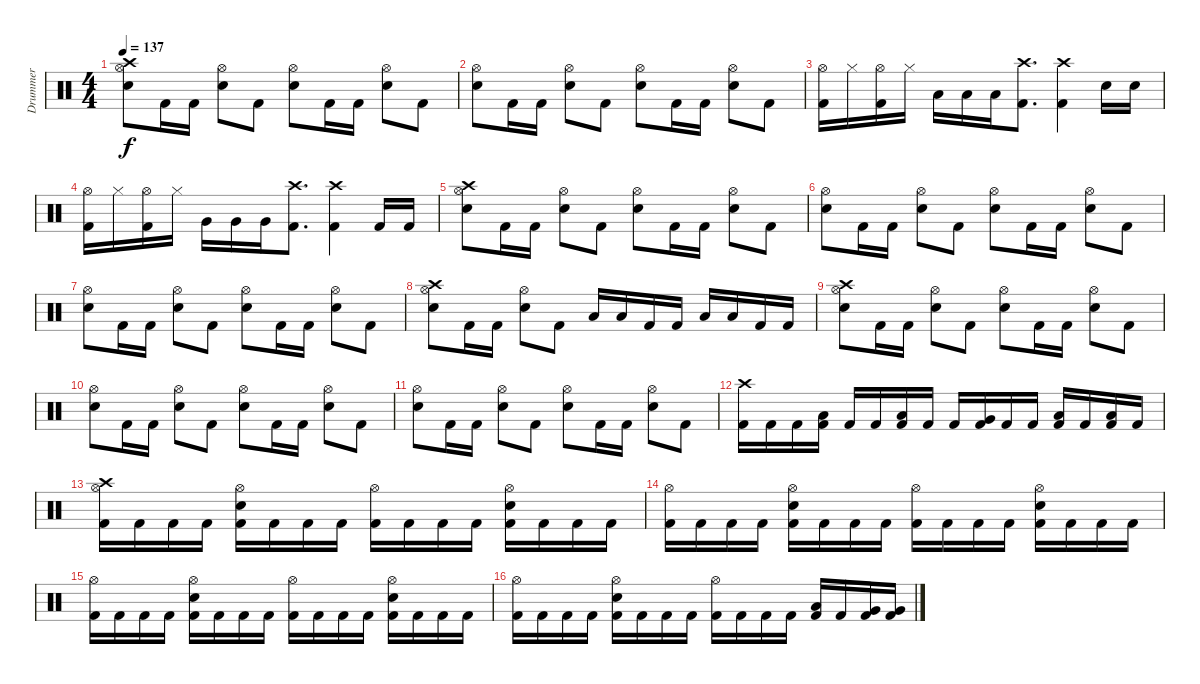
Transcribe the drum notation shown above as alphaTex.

\track ("Drummer" "Drummer") {instrument percussion}
\staff {score}
\articulation defaults
\ts (4 4)
\tempo 137
\clef neutral
\ks c
("Crash high (hit)" "Hi-Hat (open)" "Electric Snare (hit)").8{dy f} "Kick (hit) 2".16 "Kick (hit) 2".16 ("Hi-Hat (open)" "Electric Snare (hit)").8 "Kick (hit) 2".8 ("Hi-Hat (open)" "Electric Snare (hit)").8 "Kick (hit) 2".16 "Kick (hit) 2".16 ("Hi-Hat (open)" "Electric Snare (hit)").8 "Kick (hit) 2".8 |
("Hi-Hat (open)" "Electric Snare (hit)").8 "Kick (hit) 2".16 "Kick (hit) 2".16 ("Hi-Hat (open)" "Electric Snare (hit)").8 "Kick (hit) 2".8 ("Hi-Hat (open)" "Electric Snare (hit)").8 "Kick (hit) 2".16 "Kick (hit) 2".16 ("Hi-Hat (open)" "Electric Snare (hit)").8 "Kick (hit) 2".8 |
("Hi-Hat (open)" "Kick (hit) 2").16 "Hi-Hat (closed)".16 ("Hi-Hat (open)" "Kick (hit) 2").16 "Hi-Hat (closed)".16 "Low Tom (hit)".16 "Low Tom (hit)".16 "Low Tom (hit)".16 ("Crash high (hit)" "Kick (hit) 2").8{d} ("Crash high (hit)" "Kick (hit) 2").4 "Electric Snare (hit)".16 "Electric Snare (hit)".16 |
("Hi-Hat (open)" "Kick (hit) 2").16 "Hi-Hat (closed)".16 ("Hi-Hat (open)" "Kick (hit) 2").16 "Hi-Hat (closed)".16 "Very Low Tom (hit)".16 "Very Low Tom (hit)".16 "Very Low Tom (hit)".16 ("Crash high (hit)" "Kick (hit) 2").8{d} ("Crash high (hit)" "Kick (hit) 2").4 "Kick (hit) 2".16 "Kick (hit) 2".16 |
("Crash high (hit)" "Hi-Hat (open)" "Electric Snare (hit)").8 "Kick (hit) 2".16 "Kick (hit) 2".16 ("Hi-Hat (open)" "Electric Snare (hit)").8 "Kick (hit) 2".8 ("Hi-Hat (open)" "Electric Snare (hit)").8 "Kick (hit) 2".16 "Kick (hit) 2".16 ("Hi-Hat (open)" "Electric Snare (hit)").8 "Kick (hit) 2".8 |
("Hi-Hat (open)" "Electric Snare (hit)").8 "Kick (hit) 2".16 "Kick (hit) 2".16 ("Hi-Hat (open)" "Electric Snare (hit)").8 "Kick (hit) 2".8 ("Hi-Hat (open)" "Electric Snare (hit)").8 "Kick (hit) 2".16 "Kick (hit) 2".16 ("Hi-Hat (open)" "Electric Snare (hit)").8 "Kick (hit) 2".8 |
("Hi-Hat (open)" "Electric Snare (hit)").8 "Kick (hit) 2".16 "Kick (hit) 2".16 ("Hi-Hat (open)" "Electric Snare (hit)").8 "Kick (hit) 2".8 ("Hi-Hat (open)" "Electric Snare (hit)").8 "Kick (hit) 2".16 "Kick (hit) 2".16 ("Hi-Hat (open)" "Electric Snare (hit)").8 "Kick (hit) 2".8 |
("Crash high (hit)" "Hi-Hat (open)" "Electric Snare (hit)").8 "Kick (hit) 2".16 "Kick (hit) 2".16 ("Hi-Hat (open)" "Electric Snare (hit)").8 "Kick (hit) 2".8 "Low Tom (hit)".16 "Low Tom (hit)".16 "Kick (hit) 2".16 "Kick (hit) 2".16 "Low Floor Tom (hit)".16 "Low Floor Tom (hit)".16 "Kick (hit) 2".16 "Kick (hit) 2".16 |
("Crash high (hit)" "Hi-Hat (open)" "Electric Snare (hit)").8 "Kick (hit) 2".16 "Kick (hit) 2".16 ("Hi-Hat (open)" "Electric Snare (hit)").8 "Kick (hit) 2".8 ("Hi-Hat (open)" "Electric Snare (hit)").8 "Kick (hit) 2".16 "Kick (hit) 2".16 ("Hi-Hat (open)" "Electric Snare (hit)").8 "Kick (hit) 2".8 |
("Hi-Hat (open)" "Electric Snare (hit)").8 "Kick (hit) 2".16 "Kick (hit) 2".16 ("Hi-Hat (open)" "Electric Snare (hit)").8 "Kick (hit) 2".8 ("Hi-Hat (open)" "Electric Snare (hit)").8 "Kick (hit) 2".16 "Kick (hit) 2".16 ("Hi-Hat (open)" "Electric Snare (hit)").8 "Kick (hit) 2".8 |
("Hi-Hat (open)" "Electric Snare (hit)").8 "Kick (hit) 2".16 "Kick (hit) 2".16 ("Hi-Hat (open)" "Electric Snare (hit)").8 "Kick (hit) 2".8 ("Hi-Hat (open)" "Electric Snare (hit)").8 "Kick (hit) 2".16 "Kick (hit) 2".16 ("Hi-Hat (open)" "Electric Snare (hit)").8 "Kick (hit) 2".8 |
("Kick (hit) 2" "Crash high (hit)").16 "Kick (hit) 2".16 "Kick (hit) 2".16 ("Kick (hit) 2" "Low Tom (hit)").16 "Kick (hit) 2".16 "Kick (hit) 2".16 ("Kick (hit) 2" "Low Tom (hit)").16 "Kick (hit) 2".16 "Kick (hit) 2".16 ("Kick (hit) 2" "Very Low Tom (hit)").16 "Kick (hit) 2".16 "Kick (hit) 2".16 ("Kick (hit) 2" "Low Floor Tom (hit)").16 "Kick (hit) 2".16 ("Kick (hit) 2" "Low Floor Tom (hit)").16 "Kick (hit) 2".16 |
("Crash high (hit)" "Hi-Hat (open)" "Kick (hit) 2").16 "Kick (hit) 2".16 "Kick (hit) 2".16 "Kick (hit) 2".16 ("Electric Snare (hit)" "Hi-Hat (open)" "Kick (hit) 2").16 "Kick (hit) 2".16 "Kick (hit) 2".16 "Kick (hit) 2".16 ("Hi-Hat (open)" "Kick (hit) 2").16 "Kick (hit) 2".16 "Kick (hit) 2".16 "Kick (hit) 2".16 ("Electric Snare (hit)" "Hi-Hat (open)" "Kick (hit) 2").16 "Kick (hit) 2".16 "Kick (hit) 2".16 "Kick (hit) 2".16 |
("Hi-Hat (open)" "Kick (hit) 2").16 "Kick (hit) 2".16 "Kick (hit) 2".16 "Kick (hit) 2".16 ("Electric Snare (hit)" "Hi-Hat (open)" "Kick (hit) 2").16 "Kick (hit) 2".16 "Kick (hit) 2".16 "Kick (hit) 2".16 ("Hi-Hat (open)" "Kick (hit) 2").16 "Kick (hit) 2".16 "Kick (hit) 2".16 "Kick (hit) 2".16 ("Electric Snare (hit)" "Hi-Hat (open)" "Kick (hit) 2").16 "Kick (hit) 2".16 "Kick (hit) 2".16 "Kick (hit) 2".16 |
("Hi-Hat (open)" "Kick (hit) 2").16 "Kick (hit) 2".16 "Kick (hit) 2".16 "Kick (hit) 2".16 ("Electric Snare (hit)" "Hi-Hat (open)" "Kick (hit) 2").16 "Kick (hit) 2".16 "Kick (hit) 2".16 "Kick (hit) 2".16 ("Hi-Hat (open)" "Kick (hit) 2").16 "Kick (hit) 2".16 "Kick (hit) 2".16 "Kick (hit) 2".16 ("Electric Snare (hit)" "Hi-Hat (open)" "Kick (hit) 2").16 "Kick (hit) 2".16 "Kick (hit) 2".16 "Kick (hit) 2".16 |
("Hi-Hat (open)" "Kick (hit) 2").16 "Kick (hit) 2".16 "Kick (hit) 2".16 "Kick (hit) 2".16 ("Electric Snare (hit)" "Hi-Hat (open)" "Kick (hit) 2").16 "Kick (hit) 2".16 "Kick (hit) 2".16 "Kick (hit) 2".16 ("Hi-Hat (open)" "Kick (hit) 2").16 "Kick (hit) 2".16 "Kick (hit) 2".16 "Kick (hit) 2".16 ("Low Tom (hit)" "Kick (hit) 2").16 "Kick (hit) 2".16 ("Very Low Tom (hit)" "Kick (hit) 2").16 ("Very Low Tom (hit)" "Kick (hit) 2").16
